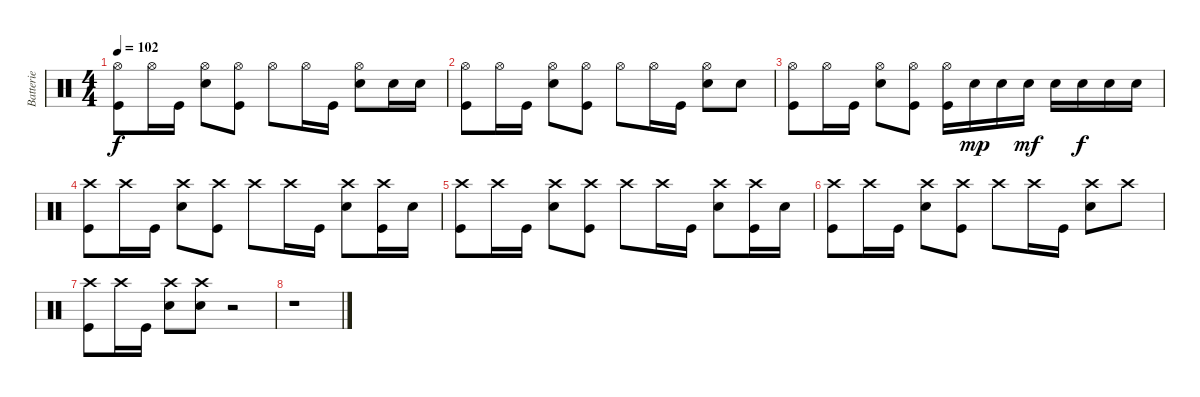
\track ("Batterie" "Batterie") {instrument percussion}
\staff {score}
\articulation defaults
\ts (4 4)
\tempo 102
\clef neutral
\ks c
("Kick (hit)" "Hi-Hat (open)").8{dy f} "Hi-Hat (open)".16 "Kick (hit)".16 ("Hi-Hat (open)" "Snare (hit) 2").8 ("Hi-Hat (open)" "Kick (hit)").8 "Hi-Hat (open)".8 "Hi-Hat (open)".16 "Kick (hit)".16 ("Hi-Hat (open)" "Snare (hit) 2").8 "Snare (hit) 2".16 "Snare (hit) 2".16 |
("Kick (hit)" "Hi-Hat (open)").8 "Hi-Hat (open)".16 "Kick (hit)".16 ("Hi-Hat (open)" "Snare (hit) 2").8 ("Hi-Hat (open)" "Kick (hit)").8 "Hi-Hat (open)".8 "Hi-Hat (open)".16 "Kick (hit)".16 ("Hi-Hat (open)" "Snare (hit) 2").8 "Snare (hit) 2".8 |
("Kick (hit)" "Hi-Hat (open)").8 "Hi-Hat (open)".16 "Kick (hit)".16 ("Hi-Hat (open)" "Snare (hit) 2").8 ("Hi-Hat (open)" "Kick (hit)").8 ("Kick (hit)" "Hi-Hat (open)").16 "Snare (hit) 2".16{dy mp} "Snare (hit) 2".16 "Snare (hit) 2".16{dy mf} "Snare (hit) 2".16 "Snare (hit) 2".16{dy f} "Snare (hit) 2".16 "Snare (hit) 2".16 |
("Kick (hit)" "Crash high (hit)").8 "Crash high (hit)".16 "Kick (hit)".16 ("Crash high (hit)" "Snare (hit) 2").8 ("Crash high (hit)" "Kick (hit)").8 "Crash high (hit)".8 "Crash high (hit)".16 "Kick (hit)".16 ("Crash high (hit)" "Snare (hit) 2").8 ("Crash high (hit)" "Kick (hit)").16 "Snare (hit) 2".16 |
("Kick (hit)" "Crash high (hit)").8 "Crash high (hit)".16 "Kick (hit)".16 ("Crash high (hit)" "Snare (hit) 2").8 ("Crash high (hit)" "Kick (hit)").8 "Crash high (hit)".8 "Crash high (hit)".16 "Kick (hit)".16 ("Crash high (hit)" "Snare (hit) 2").8 ("Crash high (hit)" "Kick (hit)").16 "Snare (hit) 2".16 |
("Kick (hit)" "Crash high (hit)").8 "Crash high (hit)".16 "Kick (hit)".16 ("Crash high (hit)" "Snare (hit) 2").8 ("Crash high (hit)" "Kick (hit)").8 "Crash high (hit)".8 "Crash high (hit)".16 "Kick (hit)".16 ("Crash high (hit)" "Snare (hit) 2").8 "Crash high (hit)".8 |
("Kick (hit)" "Crash high (hit)").8 "Crash high (hit)".16 "Kick (hit)".16 ("Crash high (hit)" "Snare (hit) 2").8 ("Crash high (hit)" "Snare (hit) 2").8 r.2 |
r.1
